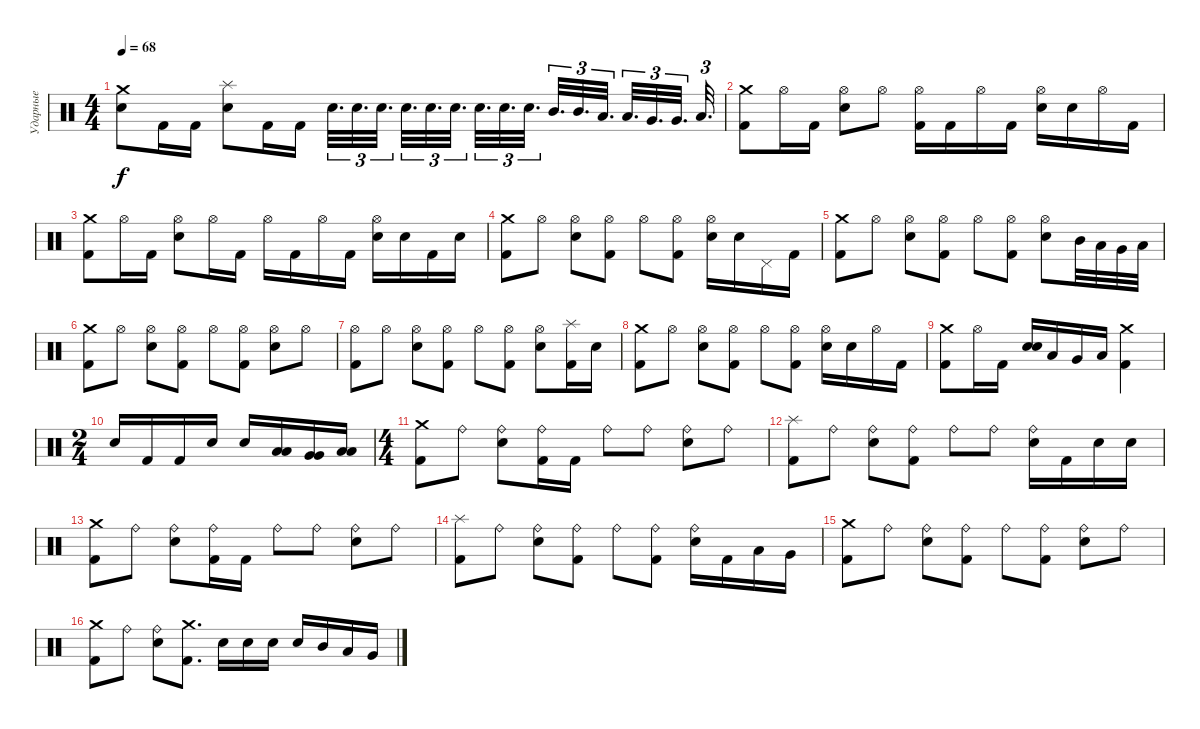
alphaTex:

\track ("Ударные" "Ударные") {instrument percussion}
\staff {score}
\articulation defaults
\ts (4 4)
\tempo 68
\clef neutral
\ks c
("Crash medium (hit)" "Snare (hit) 2").8{dy f} "Kick (hit) 2".16 "Kick (hit) 2".16 ("Splash (hit)" "Snare (hit) 2").8 "Kick (hit) 2".16 "Kick (hit) 2".16 "Snare (hit) 2".32{d tu (3 2)} "Snare (hit) 2".32{d tu (3 2)} "Snare (hit) 2".32{d tu (3 2)} "Snare (hit) 2".32{d tu (3 2)} "Snare (hit) 2".32{d tu (3 2)} "Snare (hit) 2".32{d tu (3 2)} "Snare (hit) 2".32{d tu (3 2)} "Snare (hit) 2".32{d tu (3 2)} "Snare (hit) 2".32{d tu (3 2)} "Mid Tom (hit)".32{d tu (3 2)} "Mid Tom (hit)".32{d tu (3 2)} "Low Tom (hit)".32{d tu (3 2)} "Low Tom (hit)".32{d tu (3 2)} "Very Low Tom (hit)".32{d tu (3 2)} "Very Low Tom (hit)".32{d tu (3 2)} "Low Floor Tom (hit)".32{d tu (3 2)} |
("Crash medium (hit)" "Kick (hit) 2").8 "Hi-Hat (open)".16 "Kick (hit) 2".16 ("Hi-Hat (open)" "Snare (hit) 2").8 "Hi-Hat (open)".8 ("Hi-Hat (open)" "Kick (hit) 2").16 "Kick (hit) 2".16 "Hi-Hat (open)".16 "Kick (hit) 2".16 ("Snare (hit) 2" "Hi-Hat (open)").16 "Snare (hit) 2".16 "Hi-Hat (open)".16 "Kick (hit) 2".16 |
("Crash medium (hit)" "Kick (hit) 2").8 "Hi-Hat (open)".16 "Kick (hit) 2".16 ("Hi-Hat (open)" "Snare (hit) 2").8 "Hi-Hat (open)".16 "Kick (hit) 2".16 "Hi-Hat (open)".16 "Kick (hit) 2".16 "Hi-Hat (open)".16 "Kick (hit) 2".16 ("Snare (hit) 2" "Hi-Hat (open)").16 "Snare (hit) 2".16 "Kick (hit) 2".16 "Snare (hit) 2".16 |
("Crash medium (hit)" "Kick (hit) 2").8 "Hi-Hat (open)".8 ("Hi-Hat (open)" "Snare (hit) 2").8 ("Hi-Hat (open)" "Kick (hit) 2").8 "Hi-Hat (open)".8 ("Hi-Hat (open)" "Kick (hit) 2").8 ("Hi-Hat (open)" "Snare (hit) 2").16 "Snare (hit) 2".16 "Pedal Hi-Hat (hit)".16 "Kick (hit) 2".16 |
("Crash medium (hit)" "Kick (hit) 2").8 "Hi-Hat (open)".8 ("Hi-Hat (open)" "Snare (hit) 2").8 ("Hi-Hat (open)" "Kick (hit) 2").8 "Hi-Hat (open)".8 ("Hi-Hat (open)" "Kick (hit) 2").8 ("Hi-Hat (open)" "Snare (hit) 2").8 "Mid Tom (hit)".32 "Low Tom (hit)".32 "Very Low Tom (hit)".32 "Low Floor Tom (hit)".32 |
("Crash medium (hit)" "Kick (hit) 2").8 "Hi-Hat (open)".8 ("Hi-Hat (open)" "Snare (hit) 2").8 ("Hi-Hat (open)" "Kick (hit) 2").8 "Hi-Hat (open)".8 ("Hi-Hat (open)" "Kick (hit) 2").8 ("Hi-Hat (open)" "Snare (hit) 2").8 "Hi-Hat (open)".8 |
("Hi-Hat (open)" "Kick (hit) 2").8 "Hi-Hat (open)".8 ("Hi-Hat (open)" "Snare (hit) 2").8 ("Hi-Hat (open)" "Kick (hit) 2").8 "Hi-Hat (open)".8 ("Hi-Hat (open)" "Kick (hit) 2").8 ("Hi-Hat (open)" "Snare (hit) 2").8 ("Splash (hit)" "Kick (hit) 2").16 "Snare (hit) 2".16 |
("Crash medium (hit)" "Kick (hit) 2").8 "Hi-Hat (open)".8 ("Hi-Hat (open)" "Snare (hit) 2").8 ("Hi-Hat (open)" "Kick (hit) 2").8 "Hi-Hat (open)".8 ("Hi-Hat (open)" "Kick (hit) 2").8 ("Hi-Hat (open)" "Snare (hit) 2").16 "Snare (hit) 2".16 "Hi-Hat (open)".16 "Kick (hit) 2".16 |
("Crash medium (hit)" "Kick (hit) 2").8 "Hi-Hat (open)".16 "Kick (hit) 2".16 ("Snare (hit) 2" "Snare (hit) 2").16{bd 240} "Low Tom (hit)".16 "Very Low Tom (hit)".16 "Low Floor Tom (hit)".16 ("Crash medium (hit)" "Kick (hit) 2").4 |
\ts (2 4)
"Snare (hit) 2".16 "Kick (hit) 2".16 "Kick (hit) 2".16 "Snare (hit) 2".16 "Snare (hit) 2".16 ("Low Tom (hit)" "Low Tom (hit)").16{bd 120} ("Very Low Tom (hit)" "Very Low Tom (hit)").16{bu 120} ("Low Floor Tom (hit)" "Low Floor Tom (hit)").16{bd 120} |
\ts (4 4)
("Crash medium (hit)" "Kick (hit) 2").8 "Ride (bell)".8 ("Snare (hit) 2" "Ride (bell)").8 ("Kick (hit) 2" "Ride (bell)").16 "Kick (hit) 2".16 "Ride (bell)".8 "Ride (bell)".8 ("Snare (hit) 2" "Ride (bell)").8 "Ride (bell)".8 |
("Kick (hit) 2" "Splash (hit)").8 "Ride (bell)".8 ("Snare (hit) 2" "Ride (bell)").8 ("Kick (hit) 2" "Ride (bell)").8 "Ride (bell)".8 "Ride (bell)".8 ("Snare (hit) 2" "Ride (bell)").16 "Kick (hit) 2".16 "Snare (hit) 2".16 "Snare (hit) 2".16 |
("Crash medium (hit)" "Kick (hit) 2").8 "Ride (bell)".8 ("Snare (hit) 2" "Ride (bell)").8 ("Kick (hit) 2" "Ride (bell)").16 "Kick (hit) 2".16 "Ride (bell)".8 "Ride (bell)".8 ("Snare (hit) 2" "Ride (bell)").8 "Ride (bell)".8 |
("Kick (hit) 2" "Splash (hit)").8 "Ride (bell)".8 ("Snare (hit) 2" "Ride (bell)").8 ("Kick (hit) 2" "Ride (bell)").8 "Ride (bell)".8 ("Kick (hit) 2" "Ride (bell)").8 ("Snare (hit) 2" "Ride (bell)").16 "Kick (hit) 2".16 "Low Tom (hit)".16 "Very Low Tom (hit)".16 |
("Crash medium (hit)" "Kick (hit) 2").8 "Ride (bell)".8 ("Snare (hit) 2" "Ride (bell)").8 ("Kick (hit) 2" "Ride (bell)").8 "Ride (bell)".8 ("Kick (hit) 2" "Ride (bell)").8 ("Snare (hit) 2" "Ride (bell)").8 "Ride (bell)".8 |
("Kick (hit) 2" "Crash medium (hit)").8 "Ride (bell)".8 ("Snare (hit) 2" "Ride (bell)").8 ("Crash medium (hit)" "Kick (hit) 2").8{d} "Snare (hit) 2".16 "Snare (hit) 2".16 "Snare (hit) 2".16 "Snare (hit) 2".16 "Mid Tom (hit)".16 "Low Tom (hit)".16 "Very Low Tom (hit)".16
